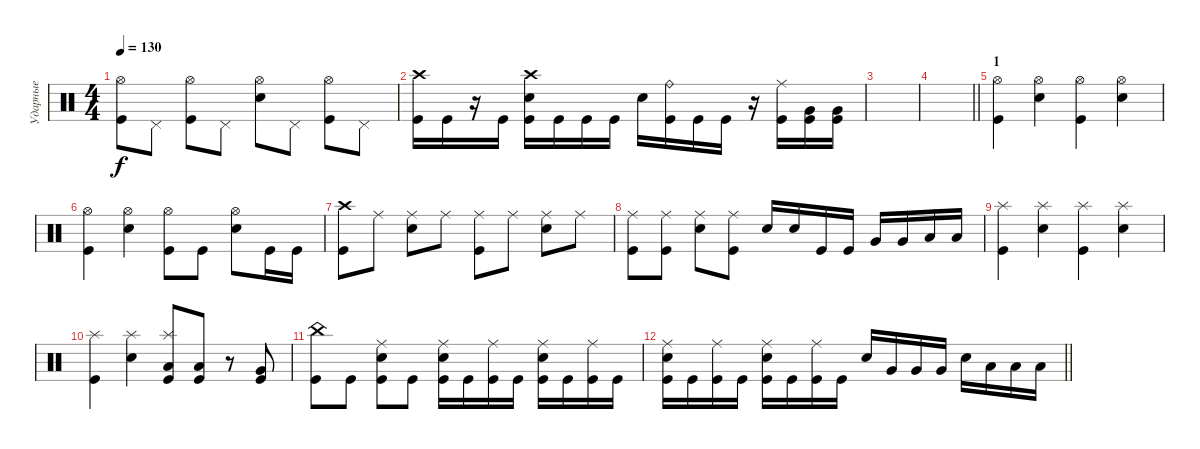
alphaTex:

\track ("Ударные" "Ударные") {instrument percussion}
\staff {score}
\articulation defaults
\ts (4 4)
\tempo 130
\clef neutral
\ks c
("Hi-Hat (open)" "Kick (hit)").8{dy f} "Pedal Hi-Hat (hit)".8 ("Hi-Hat (open)" "Kick (hit)").8 "Pedal Hi-Hat (hit)".8 ("Hi-Hat (open)" "Electric Snare (hit)").8 "Pedal Hi-Hat (hit)".8 ("Hi-Hat (open)" "Kick (hit)").8 "Pedal Hi-Hat (hit)".8 |
("Crash high (hit)" "Kick (hit)").16 "Kick (hit)".16 r.16 "Kick (hit)".16 ("Crash high (hit)" "Electric Snare (hit)" "Kick (hit)").16 "Kick (hit)".16 "Kick (hit)".16 "Kick (hit)".16 "Electric Snare (hit)".16 ("Ride (bell)" "Kick (hit)").16 "Kick (hit)".16 "Kick (hit)".16 r.16 ("Ride (middle)" "Kick (hit)").16 ("Very Low Tom (hit)" "Kick (hit)").16 ("Very Low Tom (hit)" "Kick (hit)").16 |
|
\barLineRight lightlight
|
\section ("" "1")
("Hi-Hat (open)" "Kick (hit)").4 ("Hi-Hat (open)" "Electric Snare (hit)").4 ("Hi-Hat (open)" "Kick (hit)").4 ("Hi-Hat (open)" "Electric Snare (hit)").4 |
("Hi-Hat (open)" "Kick (hit)").4 ("Hi-Hat (open)" "Electric Snare (hit)").4 ("Hi-Hat (open)" "Kick (hit)").8 "Kick (hit)".8 ("Hi-Hat (open)" "Electric Snare (hit)").8 "Kick (hit)".16 "Kick (hit)".16 |
("Crash high (hit)" "Kick (hit)").8 "Ride (middle)".8 ("Ride (middle)" "Electric Snare (hit)").8 "Ride (middle)".8 ("Ride (middle)" "Kick (hit)").8 "Ride (middle)".8 ("Ride (middle)" "Electric Snare (hit)").8 "Ride (middle)".8 |
("Ride (middle)" "Kick (hit)").8 ("Ride (middle)" "Kick (hit)").8 ("Ride (middle)" "Electric Snare (hit)").8 ("Ride (middle)" "Kick (hit)").8 "Electric Snare (hit)".16 "Electric Snare (hit)".16 "Kick (hit)".16 "Kick (hit)".16 "Very Low Tom (hit)".16 "Very Low Tom (hit)".16 "Low Floor Tom (hit)".16 "Low Floor Tom (hit)".16 |
("Splash (hit)" "Kick (hit)").4 ("Splash (hit)" "Electric Snare (hit)").4 ("Splash (hit)" "Kick (hit)").4 ("Splash (hit)" "Electric Snare (hit)").4 |
("Splash (hit)" "Kick (hit)").4 ("Splash (hit)" "Electric Snare (hit)").4 ("Splash (hit)" "Low Tom (hit)" "Kick (hit)").8 ("Low Tom (hit)" "Kick (hit)").8 r.8 ("Very Low Tom (hit)" "Kick (hit)").8 |
("China (hit)" "Kick (hit)").8 "Kick (hit)".8 ("Ride (middle)" "Electric Snare (hit)" "Kick (hit)").8 "Kick (hit)".8 ("Ride (middle)" "Electric Snare (hit)" "Kick (hit)").16 "Kick (hit)".16 ("Ride (middle)" "Kick (hit)").16 "Kick (hit)".16 ("Ride (middle)" "Electric Snare (hit)" "Kick (hit)").16 "Kick (hit)".16 ("Ride (middle)" "Kick (hit)").16 "Kick (hit)".16 |
\barLineRight lightlight
("Ride (middle)" "Electric Snare (hit)" "Kick (hit)").16 "Kick (hit)".16 ("Ride (middle)" "Kick (hit)").16 "Kick (hit)".16 ("Ride (middle)" "Electric Snare (hit)" "Kick (hit)").16 "Kick (hit)".16 ("Ride (middle)" "Kick (hit)").16 "Kick (hit)".16 "Electric Snare (hit)".16 "Very Low Tom (hit)".16 "Very Low Tom (hit)".16 "Very Low Tom (hit)".16 "Electric Snare (hit)".16 "Low Floor Tom (hit)".16 "Low Floor Tom (hit)".16 "Low Floor Tom (hit)".16
